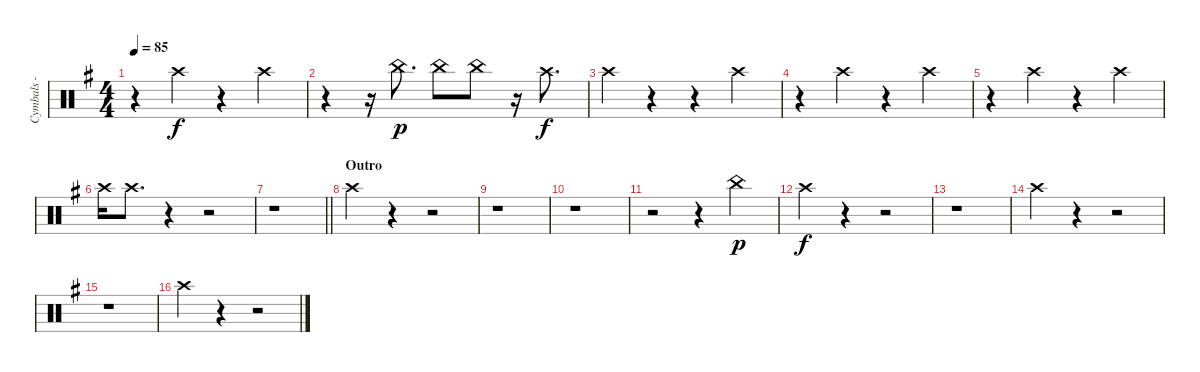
\track ("Cymbals - crash" "Cymbals - ") {instrument percussion}
\staff {score}
\articulation defaults
\ts (4 4)
\tempo 85
\clef neutral
\ks g
r.4{dy f} "Crash high (hit)".4 r.4 "Crash high (hit)".4 |
r.4 r.16 "China (hit)".8{d dy p} "China (hit)".8 "China (hit)".8 r.16 "Crash high (hit)".8{d dy f} |
"Crash high (hit)".4 r.4 r.4 "Crash high (hit)".4 |
r.4 "Crash high (hit)".4 r.4 "Crash high (hit)".4 |
r.4 "Crash high (hit)".4 r.4 "Crash high (hit)".4 |
"Crash high (hit)".16 "Crash high (hit)".8{d} r.4 r.2 |
\barLineRight lightlight
r.1 |
\section ("" "Outro")
"Crash high (hit)".4 r.4 r.2 |
r.1 |
r.1 |
r.2 r.4 "China (hit)".4{dy p} |
"Crash high (hit)".4{dy f} r.4 r.2 |
r.1 |
"Crash high (hit)".4 r.4 r.2 |
r.1 |
"Crash high (hit)".4 r.4 r.2
